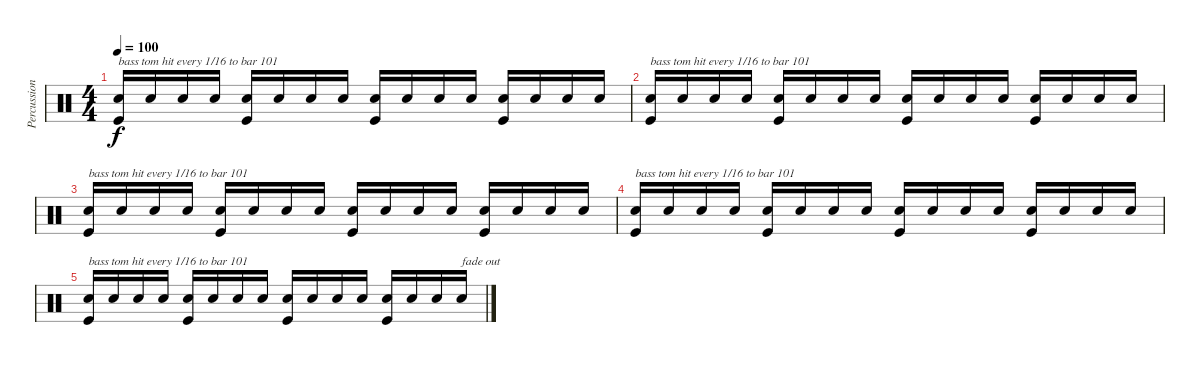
\track ("Percussion" "Percussion") {instrument percussion}
\staff {score}
\articulation defaults
\ts (4 4)
\tempo 100
\clef neutral
\ks c
("Snare (hit) 2" "Kick (hit)").16{txt "bass tom hit every 1/16 to bar 101" dy f} "Snare (hit) 2".16 "Snare (hit) 2".16 "Snare (hit) 2".16 ("Snare (hit) 2" "Kick (hit)").16 "Snare (hit) 2".16 "Snare (hit) 2".16 "Snare (hit) 2".16 ("Snare (hit) 2" "Kick (hit)").16 "Snare (hit) 2".16 "Snare (hit) 2".16 "Snare (hit) 2".16 ("Snare (hit) 2" "Kick (hit)").16 "Snare (hit) 2".16 "Snare (hit) 2".16 "Snare (hit) 2".16 |
("Snare (hit) 2" "Kick (hit)").16{txt "bass tom hit every 1/16 to bar 101"} "Snare (hit) 2".16 "Snare (hit) 2".16 "Snare (hit) 2".16 ("Snare (hit) 2" "Kick (hit)").16 "Snare (hit) 2".16 "Snare (hit) 2".16 "Snare (hit) 2".16 ("Snare (hit) 2" "Kick (hit)").16 "Snare (hit) 2".16 "Snare (hit) 2".16 "Snare (hit) 2".16 ("Snare (hit) 2" "Kick (hit)").16 "Snare (hit) 2".16 "Snare (hit) 2".16 "Snare (hit) 2".16 |
("Snare (hit) 2" "Kick (hit)").16{txt "bass tom hit every 1/16 to bar 101"} "Snare (hit) 2".16 "Snare (hit) 2".16 "Snare (hit) 2".16 ("Snare (hit) 2" "Kick (hit)").16 "Snare (hit) 2".16 "Snare (hit) 2".16 "Snare (hit) 2".16 ("Snare (hit) 2" "Kick (hit)").16 "Snare (hit) 2".16 "Snare (hit) 2".16 "Snare (hit) 2".16 ("Snare (hit) 2" "Kick (hit)").16 "Snare (hit) 2".16 "Snare (hit) 2".16 "Snare (hit) 2".16 |
("Snare (hit) 2" "Kick (hit)").16{txt "bass tom hit every 1/16 to bar 101"} "Snare (hit) 2".16 "Snare (hit) 2".16 "Snare (hit) 2".16 ("Snare (hit) 2" "Kick (hit)").16 "Snare (hit) 2".16 "Snare (hit) 2".16 "Snare (hit) 2".16 ("Snare (hit) 2" "Kick (hit)").16 "Snare (hit) 2".16 "Snare (hit) 2".16 "Snare (hit) 2".16 ("Snare (hit) 2" "Kick (hit)").16 "Snare (hit) 2".16 "Snare (hit) 2".16 "Snare (hit) 2".16 |
("Snare (hit) 2" "Kick (hit)").16{txt "bass tom hit every 1/16 to bar 101"} "Snare (hit) 2".16 "Snare (hit) 2".16 "Snare (hit) 2".16 ("Snare (hit) 2" "Kick (hit)").16 "Snare (hit) 2".16 "Snare (hit) 2".16 "Snare (hit) 2".16 ("Snare (hit) 2" "Kick (hit)").16 "Snare (hit) 2".16 "Snare (hit) 2".16 "Snare (hit) 2".16 ("Snare (hit) 2" "Kick (hit)").16 "Snare (hit) 2".16 "Snare (hit) 2".16 "Snare (hit) 2".16{txt "fade out"}
